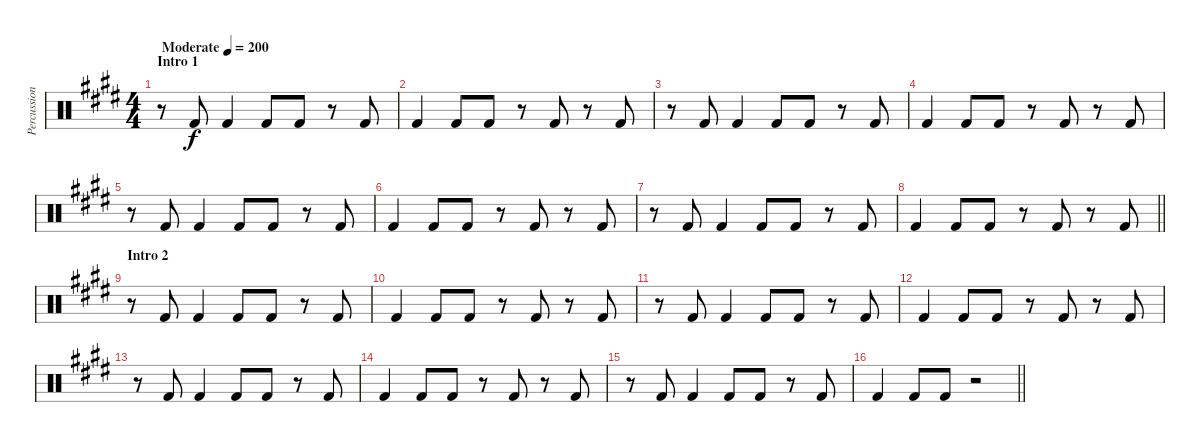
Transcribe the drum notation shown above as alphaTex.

\track ("Percussion - bass drum" "Percussion") {instrument percussion}
\staff {score}
\articulation defaults
\ts (4 4)
\section ("" "Intro 1")
\tempo (200 "Moderate")
\clef neutral
\ks e
r.8{dy f} "Kick (hit) 2".8 "Kick (hit) 2".4 "Kick (hit) 2".8 "Kick (hit) 2".8 r.8 "Kick (hit) 2".8 |
"Kick (hit) 2".4 "Kick (hit) 2".8 "Kick (hit) 2".8 r.8 "Kick (hit) 2".8 r.8 "Kick (hit) 2".8 |
r.8 "Kick (hit) 2".8 "Kick (hit) 2".4 "Kick (hit) 2".8 "Kick (hit) 2".8 r.8 "Kick (hit) 2".8 |
"Kick (hit) 2".4 "Kick (hit) 2".8 "Kick (hit) 2".8 r.8 "Kick (hit) 2".8 r.8 "Kick (hit) 2".8 |
r.8 "Kick (hit) 2".8 "Kick (hit) 2".4 "Kick (hit) 2".8 "Kick (hit) 2".8 r.8 "Kick (hit) 2".8 |
"Kick (hit) 2".4 "Kick (hit) 2".8 "Kick (hit) 2".8 r.8 "Kick (hit) 2".8 r.8 "Kick (hit) 2".8 |
r.8 "Kick (hit) 2".8 "Kick (hit) 2".4 "Kick (hit) 2".8 "Kick (hit) 2".8 r.8 "Kick (hit) 2".8 |
\barLineRight lightlight "Kick (hit) 2".4 "Kick (hit) 2".8 "Kick (hit) 2".8
r.8 "Kick (hit) 2".8 r.8 "Kick (hit) 2".8 |
\section ("" "Intro 2")
r.8 "Kick (hit) 2".8 "Kick (hit) 2".4 "Kick (hit) 2".8 "Kick (hit) 2".8 r.8 "Kick (hit) 2".8 |
"Kick (hit) 2".4 "Kick (hit) 2".8 "Kick (hit) 2".8 r.8 "Kick (hit) 2".8 r.8 "Kick (hit) 2".8 |
r.8 "Kick (hit) 2".8 "Kick (hit) 2".4 "Kick (hit) 2".8 "Kick (hit) 2".8 r.8 "Kick (hit) 2".8 |
"Kick (hit) 2".4 "Kick (hit) 2".8 "Kick (hit) 2".8 r.8 "Kick (hit) 2".8 r.8 "Kick (hit) 2".8 |
r.8 "Kick (hit) 2".8 "Kick (hit) 2".4 "Kick (hit) 2".8 "Kick (hit) 2".8 r.8 "Kick (hit) 2".8 |
"Kick (hit) 2".4 "Kick (hit) 2".8 "Kick (hit) 2".8 r.8 "Kick (hit) 2".8 r.8 "Kick (hit) 2".8 |
r.8 "Kick (hit) 2".8 "Kick (hit) 2".4 "Kick (hit) 2".8 "Kick (hit) 2".8 r.8 "Kick (hit) 2".8 |
\barLineRight lightlight "Kick (hit) 2".4 "Kick (hit) 2".8 "Kick (hit) 2".8
r.2
